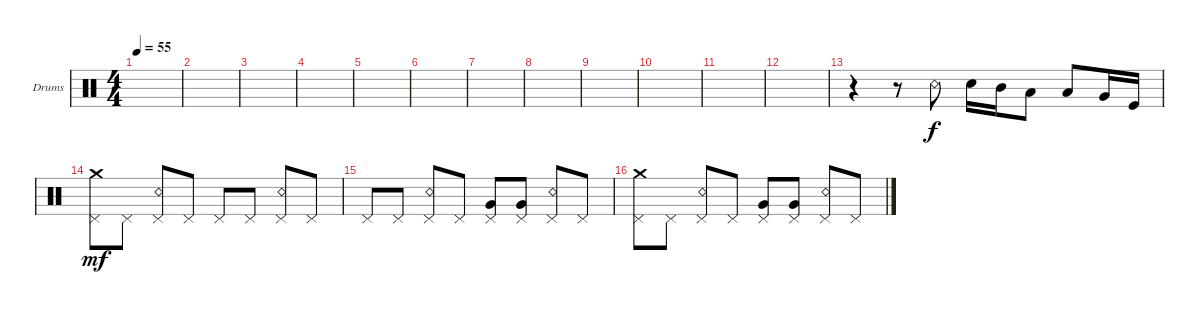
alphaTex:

\defaultSystemsLayout 4
\bracketExtendMode groupsimilarinstruments
\firstSystemTrackNameOrientation horizontal
\otherSystemsTrackNameOrientation horizontal
\track ("Drumkit" "Drums") {instrument percussion}
\staff {score}
\articulation defaults
\ts (4 4)
\tempo 55
\clef neutral
\ks c
|
|
|
|
|
|
|
|
|
|
|
|
r.4 r.8 "Snare (rim shot)".8 "Snare (hit) 2".16 "Mid Tom (hit)".16 "Low Tom (hit)".8 "Low Tom (hit)".8 "Very Low Tom (hit)".16 "Kick (hit)".16 |
("Pedal Hi-Hat (hit)" "Crash medium (hit)").8{dy mf} "Pedal Hi-Hat (hit)".8 ("Pedal Hi-Hat (hit)" "Snare (rim shot)").8 "Pedal Hi-Hat (hit)".8 "Pedal Hi-Hat (hit)".8 "Pedal Hi-Hat (hit)".8 ("Pedal Hi-Hat (hit)" "Snare (rim shot)").8 "Pedal Hi-Hat (hit)".8 |
"Pedal Hi-Hat (hit)".8 "Pedal Hi-Hat (hit)".8 ("Pedal Hi-Hat (hit)" "Snare (rim shot)").8 "Pedal Hi-Hat (hit)".8 ("Pedal Hi-Hat (hit)" "Very Low Tom (hit)").8 ("Pedal Hi-Hat (hit)" "Very Low Tom (hit)").8 ("Pedal Hi-Hat (hit)" "Snare (rim shot)").8 "Pedal Hi-Hat (hit)".8 |
("Pedal Hi-Hat (hit)" "Crash medium (hit)").8 "Pedal Hi-Hat (hit)".8 ("Pedal Hi-Hat (hit)" "Snare (rim shot)").8 "Pedal Hi-Hat (hit)".8 ("Pedal Hi-Hat (hit)" "Very Low Tom (hit)").8 ("Pedal Hi-Hat (hit)" "Very Low Tom (hit)").8 ("Pedal Hi-Hat (hit)" "Snare (rim shot)").8 "Pedal Hi-Hat (hit)".8
